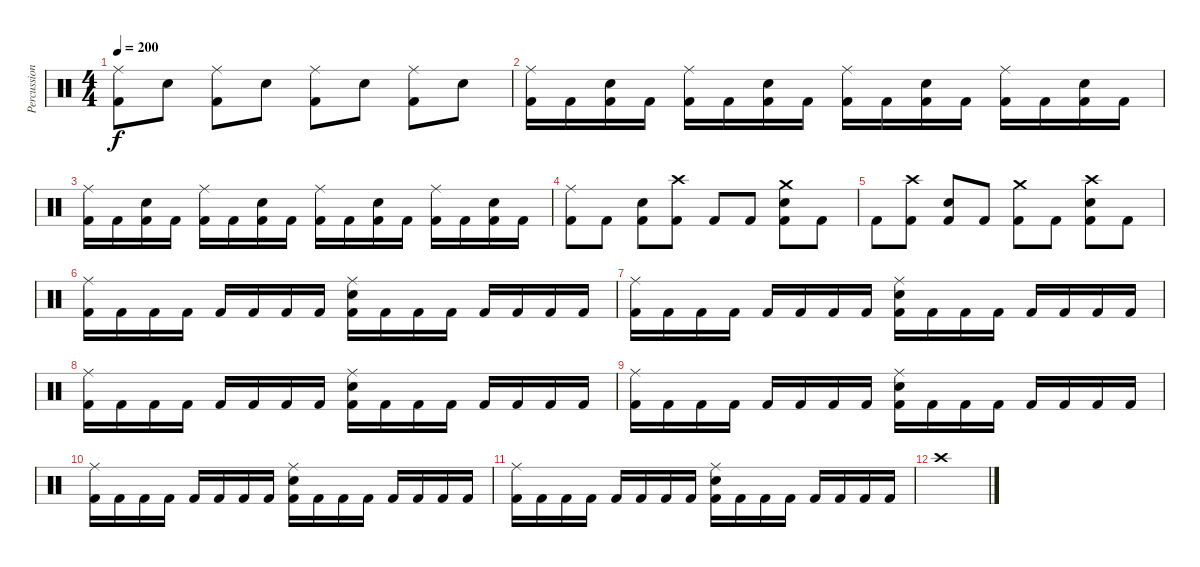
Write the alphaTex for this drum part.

\track ("Percussion" "Percussion") {instrument percussion}
\staff {score}
\articulation defaults
\ts (4 4)
\tempo 200
\clef neutral
\ks c
("Ride (middle)" "Kick (hit) 2").8{dy f} "Snare (hit) 2".8 ("Ride (middle)" "Kick (hit) 2").8 "Snare (hit) 2".8 ("Ride (middle)" "Kick (hit) 2").8 "Snare (hit) 2".8 ("Ride (middle)" "Kick (hit) 2").8 "Snare (hit) 2".8 |
("Ride (middle)" "Kick (hit) 2").16 "Kick (hit) 2".16 ("Snare (hit) 2" "Kick (hit) 2").16 "Kick (hit) 2".16 ("Ride (middle)" "Kick (hit) 2").16 "Kick (hit) 2".16 ("Snare (hit) 2" "Kick (hit) 2").16 "Kick (hit) 2".16 ("Ride (middle)" "Kick (hit) 2").16 "Kick (hit) 2".16 ("Snare (hit) 2" "Kick (hit) 2").16 "Kick (hit) 2".16 ("Ride (middle)" "Kick (hit) 2").16 "Kick (hit) 2".16 ("Snare (hit) 2" "Kick (hit) 2").16 "Kick (hit) 2".16 |
("Ride (middle)" "Kick (hit) 2").16 "Kick (hit) 2".16 ("Snare (hit) 2" "Kick (hit) 2").16 "Kick (hit) 2".16 ("Ride (middle)" "Kick (hit) 2").16 "Kick (hit) 2".16 ("Snare (hit) 2" "Kick (hit) 2").16 "Kick (hit) 2".16 ("Ride (middle)" "Kick (hit) 2").16 "Kick (hit) 2".16 ("Snare (hit) 2" "Kick (hit) 2").16 "Kick (hit) 2".16 ("Ride (middle)" "Kick (hit) 2").16 "Kick (hit) 2".16 ("Snare (hit) 2" "Kick (hit) 2").16 "Kick (hit) 2".16 |
("Kick (hit) 2" "Ride (middle)").8 "Kick (hit) 2".8 ("Snare (hit) 2" "Kick (hit) 2").8 ("Kick (hit) 2" "Crash high (hit)").8 "Kick (hit) 2".8 "Kick (hit) 2".8 ("Snare (hit) 2" "Kick (hit) 2" "Crash medium (hit)").8 "Kick (hit) 2".8 |
"Kick (hit) 2".8 ("Kick (hit) 2" "Crash high (hit)").8 ("Snare (hit) 2" "Kick (hit) 2").8 "Kick (hit) 2".8 ("Kick (hit) 2" "Crash medium (hit)").8 "Kick (hit) 2".8 ("Snare (hit) 2" "Kick (hit) 2" "Crash high (hit)").8 "Kick (hit) 2".8 |
("Ride (middle)" "Kick (hit) 2").16 "Kick (hit) 2".16 "Kick (hit) 2".16 "Kick (hit) 2".16 "Kick (hit) 2".16 "Kick (hit) 2".16 "Kick (hit) 2".16 "Kick (hit) 2".16 ("Ride (middle)" "Snare (hit) 2" "Kick (hit) 2").16 "Kick (hit) 2".16 "Kick (hit) 2".16 "Kick (hit) 2".16 "Kick (hit) 2".16 "Kick (hit) 2".16 "Kick (hit) 2".16 "Kick (hit) 2".16 |
("Ride (middle)" "Kick (hit) 2").16 "Kick (hit) 2".16 "Kick (hit) 2".16 "Kick (hit) 2".16 "Kick (hit) 2".16 "Kick (hit) 2".16 "Kick (hit) 2".16 "Kick (hit) 2".16 ("Ride (middle)" "Snare (hit) 2" "Kick (hit) 2").16 "Kick (hit) 2".16 "Kick (hit) 2".16 "Kick (hit) 2".16 "Kick (hit) 2".16 "Kick (hit) 2".16 "Kick (hit) 2".16 "Kick (hit) 2".16 |
("Ride (middle)" "Kick (hit) 2").16 "Kick (hit) 2".16 "Kick (hit) 2".16 "Kick (hit) 2".16 "Kick (hit) 2".16 "Kick (hit) 2".16 "Kick (hit) 2".16 "Kick (hit) 2".16 ("Ride (middle)" "Snare (hit) 2" "Kick (hit) 2").16 "Kick (hit) 2".16 "Kick (hit) 2".16 "Kick (hit) 2".16 "Kick (hit) 2".16 "Kick (hit) 2".16 "Kick (hit) 2".16 "Kick (hit) 2".16 |
("Ride (middle)" "Kick (hit) 2").16 "Kick (hit) 2".16 "Kick (hit) 2".16 "Kick (hit) 2".16 "Kick (hit) 2".16 "Kick (hit) 2".16 "Kick (hit) 2".16 "Kick (hit) 2".16 ("Ride (middle)" "Snare (hit) 2" "Kick (hit) 2").16 "Kick (hit) 2".16 "Kick (hit) 2".16 "Kick (hit) 2".16 "Kick (hit) 2".16 "Kick (hit) 2".16 "Kick (hit) 2".16 "Kick (hit) 2".16 |
("Ride (middle)" "Kick (hit) 2").16 "Kick (hit) 2".16 "Kick (hit) 2".16 "Kick (hit) 2".16 "Kick (hit) 2".16 "Kick (hit) 2".16 "Kick (hit) 2".16 "Kick (hit) 2".16 ("Ride (middle)" "Snare (hit) 2" "Kick (hit) 2").16 "Kick (hit) 2".16 "Kick (hit) 2".16 "Kick (hit) 2".16 "Kick (hit) 2".16 "Kick (hit) 2".16 "Kick (hit) 2".16 "Kick (hit) 2".16 |
("Ride (middle)" "Kick (hit) 2").16 "Kick (hit) 2".16 "Kick (hit) 2".16 "Kick (hit) 2".16 "Kick (hit) 2".16 "Kick (hit) 2".16 "Kick (hit) 2".16 "Kick (hit) 2".16 ("Ride (middle)" "Snare (hit) 2" "Kick (hit) 2").16 "Kick (hit) 2".16 "Kick (hit) 2".16 "Kick (hit) 2".16 "Kick (hit) 2".16 "Kick (hit) 2".16 "Kick (hit) 2".16 "Kick (hit) 2".16 |
"Crash high (hit)".1
